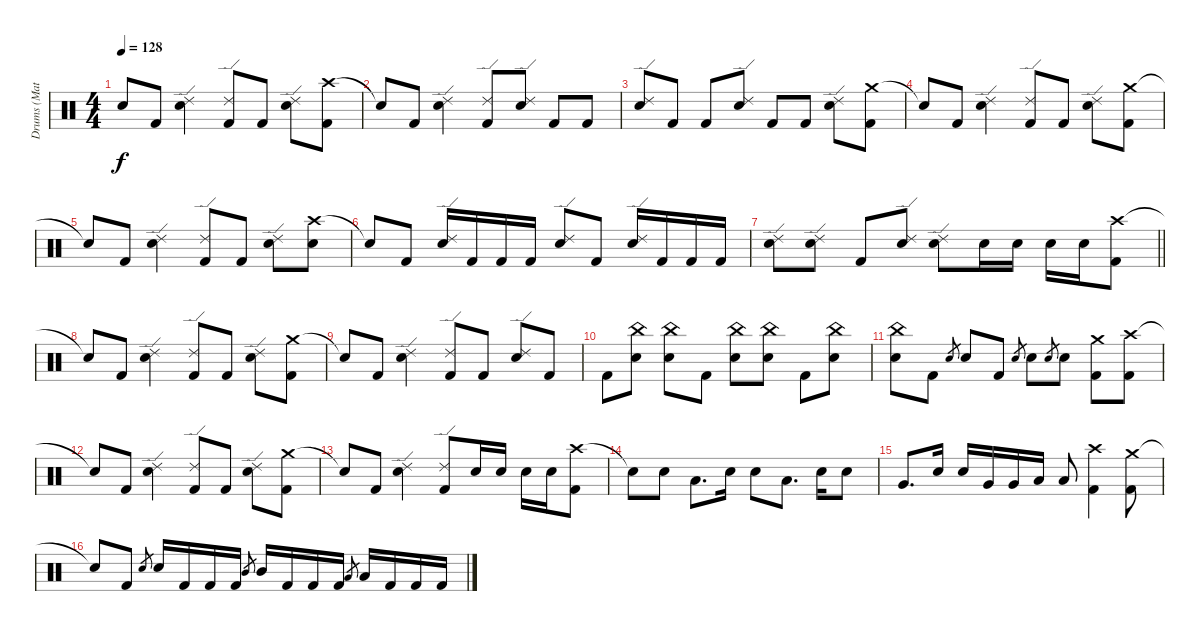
\track ("Drums (Matt)" "Drums (Mat") {instrument percussion}
\staff {score}
\articulation defaults
\ts (4 4)
\tempo 128
\clef neutral
\ks c "Snare (hit)"{t}.8{dy f} "Kick (hit) 2".8
("Ride (edge) 2" "Snare (hit) 2").4 ("Ride (edge) 2" "Kick (hit) 2").8 "Kick (hit) 2".8 ("Ride (edge) 2" "Snare (hit) 2").8 ("Crash high (hit)" "Kick (hit) 2").8 |
"Snare (hit)"{t}.8 "Kick (hit) 2".8 ("Ride (edge) 2" "Snare (hit) 2").4 ("Ride (edge) 2" "Kick (hit) 2").8 ("Ride (edge) 2" "Snare (hit) 2").8 "Kick (hit) 2".8 "Kick (hit) 2".8 |
("Ride (edge) 2" "Snare (hit) 2").8 "Kick (hit) 2".8 "Kick (hit) 2".8 ("Ride (edge) 2" "Snare (hit) 2").8 "Kick (hit) 2".8 "Kick (hit) 2".8 ("Ride (edge) 2" "Snare (hit) 2").8 ("Crash medium (hit)" "Kick (hit) 2").8 |
"Snare (hit)"{t}.8 "Kick (hit) 2".8 ("Ride (edge) 2" "Snare (hit) 2").4 ("Ride (edge) 2" "Kick (hit) 2").8 "Kick (hit) 2".8 ("Ride (edge) 2" "Snare (hit) 2").8 ("Crash medium (hit)" "Kick (hit) 2").8 |
"Snare (hit)"{t}.8 "Kick (hit) 2".8 ("Ride (edge) 2" "Snare (hit) 2").4 ("Ride (edge) 2" "Kick (hit) 2").8 "Kick (hit) 2".8 ("Ride (edge) 2" "Snare (hit) 2").8 ("Crash high (hit)" "Snare (hit) 2").8 |
"Snare (hit)"{t}.8 "Kick (hit) 2".8 ("Ride (edge) 2" "Snare (hit) 2").16 "Kick (hit) 2".16 "Kick (hit) 2".16 "Kick (hit) 2".16 ("Ride (edge) 2" "Snare (hit) 2").8 "Kick (hit) 2".8 ("Ride (edge) 2" "Snare (hit) 2").16 "Kick (hit) 2".16 "Kick (hit) 2".16 "Kick (hit) 2".16 |
\barLineRight lightlight
("Ride (edge) 2" "Snare (hit) 2").8 ("Ride (edge) 2" "Snare (hit) 2").8 "Kick (hit) 2".8 ("Ride (edge) 2" "Snare (hit) 2").8 ("Ride (edge) 2" "Snare (hit) 2").8 "Snare (hit) 2".16 "Snare (hit) 2".16 "Snare (hit) 2".16 "Snare (hit) 2".16 ("Crash high (hit)" "Kick (hit) 2").8 |
"Snare (hit)"{t}.8 "Kick (hit) 2".8 ("Ride (edge) 2" "Snare (hit) 2").4 ("Ride (edge) 2" "Kick (hit) 2").8 "Kick (hit) 2".8 ("Ride (edge) 2" "Snare (hit) 2").8 ("Crash medium (hit)" "Kick (hit) 2").8 |
"Snare (hit)"{t}.8 "Kick (hit) 2".8 ("Ride (edge) 2" "Snare (hit) 2").4 ("Ride (edge) 2" "Kick (hit) 2").8 "Kick (hit) 2".8 ("Ride (edge) 2" "Snare (hit) 2").8 "Kick (hit) 2".8 |
"Kick (hit) 2".8 ("China (hit)" "Snare (hit) 2").8 ("China (hit)" "Snare (hit) 2").8 "Kick (hit) 2".8 ("China (hit)" "Snare (hit) 2").8 ("China (hit)" "Snare (hit) 2").8 "Kick (hit) 2".8 ("China (hit)" "Snare (hit) 2").8 |
("China (hit)" "Snare (hit) 2").8 "Kick (hit) 2".8 "Snare (hit) 2".8{gr} "Snare (hit) 2".8 "Kick (hit) 2".8 "Snare (hit) 2".8{gr} "Snare (hit) 2".8 "Snare (hit) 2".8{gr} "Snare (hit) 2".8 ("Crash medium (hit)" "Kick (hit) 2").8 ("Crash high (hit)" "Kick (hit) 2").8 |
"Snare (hit)"{t}.8 "Kick (hit) 2".8 ("Ride (edge) 2" "Snare (hit) 2").4 ("Ride (edge) 2" "Kick (hit) 2").8 "Kick (hit) 2".8 ("Ride (edge) 2" "Snare (hit) 2").8 ("Crash medium (hit)" "Kick (hit) 2").8 |
"Snare (hit)"{t}.8 "Kick (hit) 2".8 ("Ride (edge) 2" "Snare (hit) 2").4 ("Ride (edge) 2" "Kick (hit) 2").8 "Snare (hit) 2".16 "Snare (hit) 2".16 "Snare (hit) 2".16 "Snare (hit) 2".16 ("Crash high (hit)" "Kick (hit) 2").8 |
"Snare (hit)"{t}.8 "Snare (hit) 2".8 "Low Tom (hit)".8{d} "Snare (hit) 2".16 "Snare (hit) 2".8 "Low Tom (hit)".8{d} "Snare (hit) 2".16 "Snare (hit) 2".8 |
"Very Low Tom (hit)".8{d} "Snare (hit) 2".16 "Snare (hit) 2".16 "Very Low Tom (hit)".16 "Very Low Tom (hit)".16 "Low Floor Tom (hit)".16 "Low Floor Tom (hit)".8 ("Crash high (hit)" "Kick (hit) 2").4 ("Crash medium (hit)" "Kick (hit) 2").8 |
"Snare (hit)"{t}.8 "Kick (hit) 2".8 "Snare (hit) 2".8{gr} "Snare (hit) 2".16 "Kick (hit) 2".16 "Kick (hit) 2".16 "Kick (hit) 2".16 "Mid Tom (hit)".8{gr} "Mid Tom (hit)".16 "Kick (hit) 2".16 "Kick (hit) 2".16 "Kick (hit) 2".16 "Low Tom (hit)".8{gr} "Low Tom (hit)".16 "Kick (hit) 2".16 "Kick (hit) 2".16 "Kick (hit) 2".16
